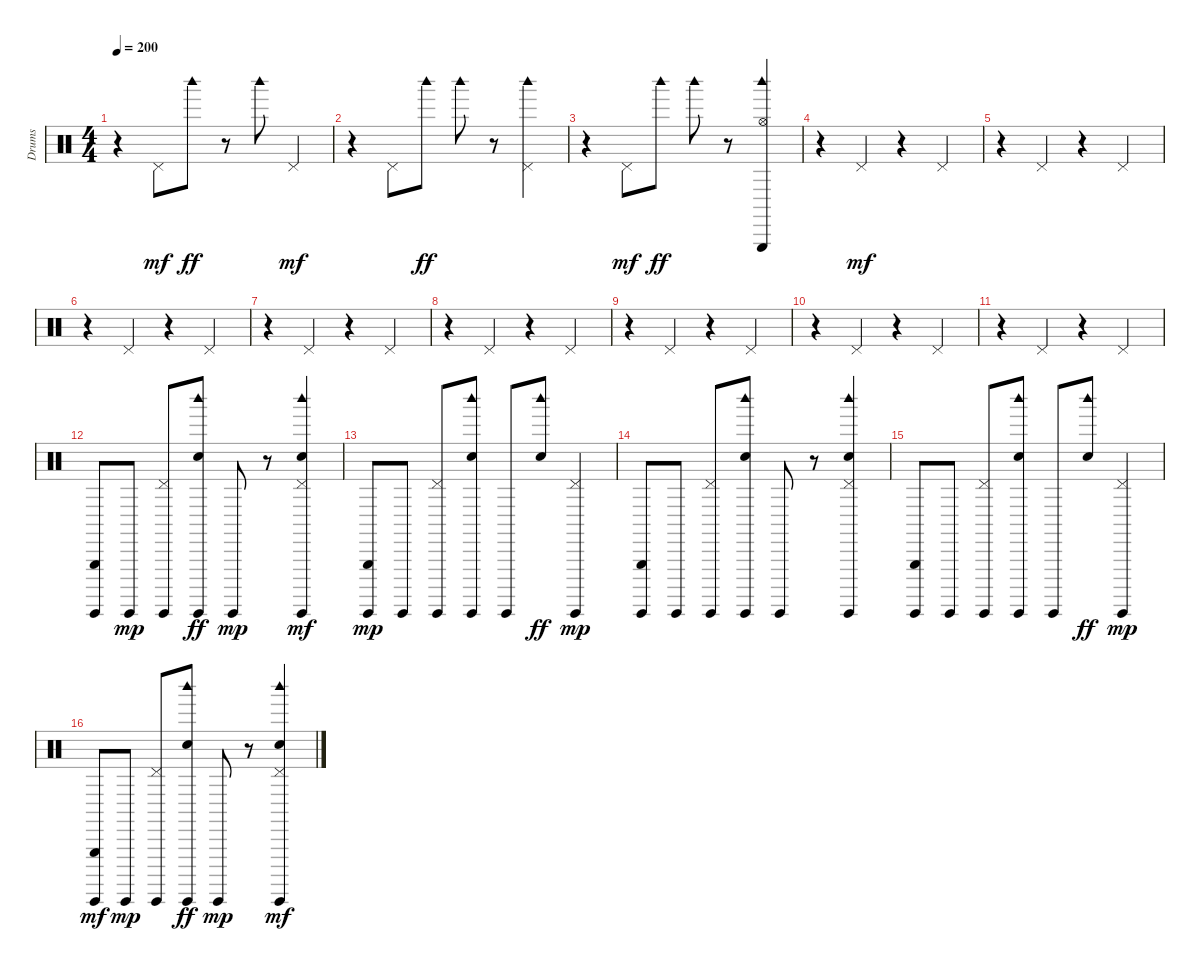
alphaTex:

\track ("Drums" "Drums") {instrument percussion}
\staff {score}
\articulation defaults
\ts (4 4)
\tempo 200
\clef neutral
\ks c
r.4{dy f} "Pedal Hi-Hat (hit)".8{dy mf} "Woodblock high (hit)".8{dy ff} r.8 "Woodblock high (hit)".8 "Pedal Hi-Hat (hit)".4{dy mf} |
r.4 "Pedal Hi-Hat (hit)".8 "Woodblock high (hit)".8{dy ff} "Woodblock high (hit)".8 r.8 ("Pedal Hi-Hat (hit)" "Woodblock high (hit)").4 |
r.4 "Pedal Hi-Hat (hit)".8{dy mf} "Woodblock high (hit)".8{dy ff} "Woodblock high (hit)".8 r.8 ("Woodblock high (hit)" "Hi-Hat (open)" "Triangle (hit)").4 |
r.4 "Pedal Hi-Hat (hit)".4{dy mf} r.4 "Pedal Hi-Hat (hit)".4 |
r.4 "Pedal Hi-Hat (hit)".4 r.4 "Pedal Hi-Hat (hit)".4 |
r.4 "Pedal Hi-Hat (hit)".4 r.4 "Pedal Hi-Hat (hit)".4 |
r.4 "Pedal Hi-Hat (hit)".4 r.4 "Pedal Hi-Hat (hit)".4 |
r.4 "Pedal Hi-Hat (hit)".4 r.4 "Pedal Hi-Hat (hit)".4 |
r.4 "Pedal Hi-Hat (hit)".4 r.4 "Pedal Hi-Hat (hit)".4 |
r.4 "Pedal Hi-Hat (hit)".4 r.4 "Pedal Hi-Hat (hit)".4 |
r.4 "Pedal Hi-Hat (hit)".4 r.4 "Pedal Hi-Hat (hit)".4 |
("Guiro (hit)" "Triangle (hit)").8 "Guiro (hit)".8{dy mp} ("Pedal Hi-Hat (hit)" "Guiro (hit)").8 ("Guiro (hit)" "Woodblock high (hit)" "Hand Clap (hit)").8{dy ff} "Guiro (hit)".8{dy mp} r.8 ("Hand Clap (hit)" "Guiro (hit)" "Pedal Hi-Hat (hit)" "Woodblock high (hit)").4{dy mf} |
("Triangle (hit)" "Guiro (hit)").8{dy mp} "Guiro (hit)".8 ("Pedal Hi-Hat (hit)" "Guiro (hit)").8 ("Hand Clap (hit)" "Woodblock high (hit)" "Guiro (hit)").8 "Guiro (hit)".8 ("Hand Clap (hit)" "Woodblock high (hit)").8{dy ff} ("Pedal Hi-Hat (hit)" "Guiro (hit)").4{dy mp} |
("Triangle (hit)" "Guiro (hit)").8 "Guiro (hit)".8 ("Pedal Hi-Hat (hit)" "Guiro (hit)").8 ("Hand Clap (hit)" "Woodblock high (hit)" "Guiro (hit)").8 "Guiro (hit)".8 r.8 ("Hand Clap (hit)" "Woodblock high (hit)" "Pedal Hi-Hat (hit)" "Guiro (hit)").4 |
("Triangle (hit)" "Guiro (hit)").8 "Guiro (hit)".8 ("Pedal Hi-Hat (hit)" "Guiro (hit)").8 ("Hand Clap (hit)" "Woodblock high (hit)" "Guiro (hit)").8 "Guiro (hit)".8 ("Hand Clap (hit)" "Woodblock high (hit)").8{dy ff} ("Pedal Hi-Hat (hit)" "Guiro (hit)").4{dy mp} |
("Guiro (hit)" "Triangle (hit)").8{dy mf} "Guiro (hit)".8{dy mp} ("Pedal Hi-Hat (hit)" "Guiro (hit)").8 ("Guiro (hit)" "Woodblock high (hit)" "Hand Clap (hit)").8{dy ff} "Guiro (hit)".8{dy mp} r.8 ("Hand Clap (hit)" "Guiro (hit)" "Pedal Hi-Hat (hit)" "Woodblock high (hit)").4{dy mf}
